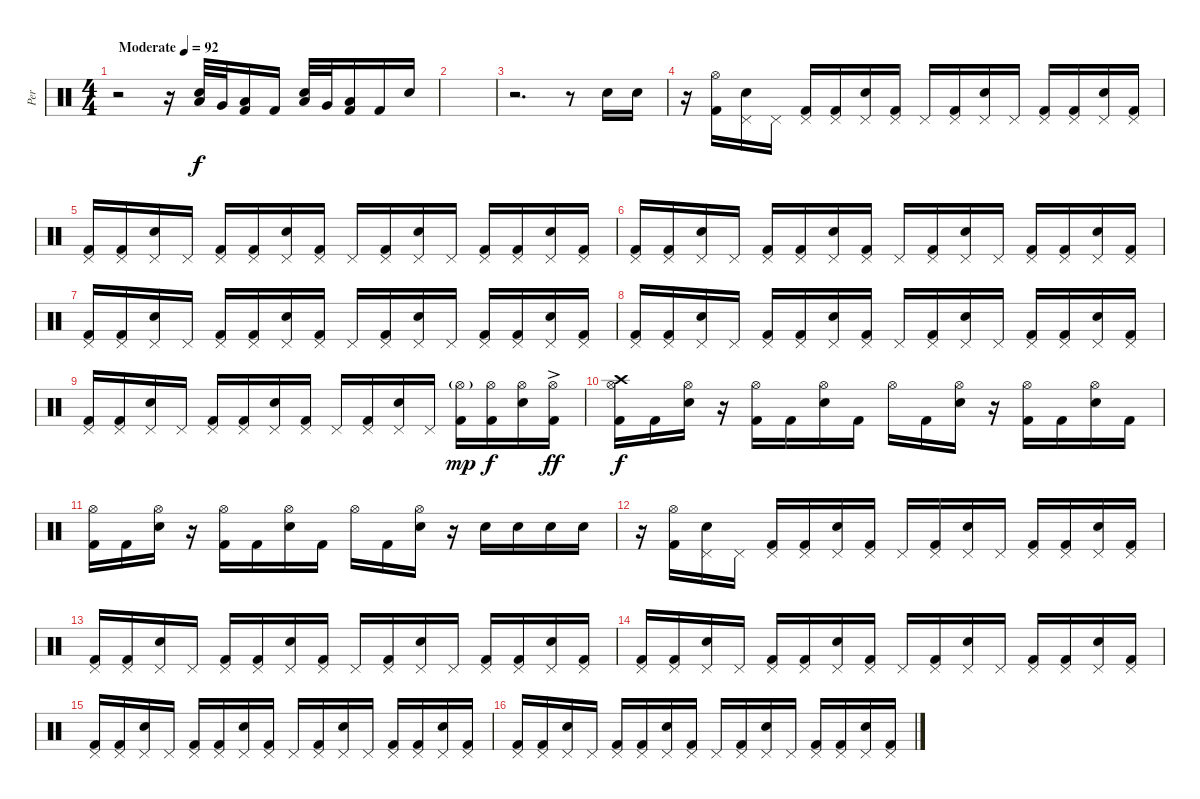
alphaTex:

\track ("Per" "Per") {instrument percussion}
\staff {score}
\articulation defaults
\ts (4 4)
\tempo (92 "Moderate")
\clef neutral
\ks c
r.2{dy f} r.16 ("Low Tom (hit)" "Snare (hit) 2").32 "Very Low Tom (hit)".32 ("Low Floor Tom (hit)" "Kick (hit) 2").16 "Kick (hit) 2".16 ("Low Tom (hit)" "Snare (hit) 2").32 "Very Low Tom (hit)".32 ("Low Floor Tom (hit)" "Kick (hit) 2").16 "Kick (hit) 2".16 "Snare (hit) 2".16 |
|
r.2{d} r.8 "Snare (hit) 2".16 "Snare (hit) 2".16 |
r.16 ("Hi-Hat (open)" "Kick (hit) 2").16 ("Pedal Hi-Hat (hit)" "Snare (hit) 2").16 "Pedal Hi-Hat (hit)".16 ("Pedal Hi-Hat (hit)" "Kick (hit) 2").16 ("Pedal Hi-Hat (hit)" "Kick (hit) 2").16 ("Pedal Hi-Hat (hit)" "Snare (hit) 2").16 ("Pedal Hi-Hat (hit)" "Kick (hit) 2").16 "Pedal Hi-Hat (hit)".16 ("Pedal Hi-Hat (hit)" "Kick (hit) 2").16 ("Pedal Hi-Hat (hit)" "Snare (hit) 2").16 "Pedal Hi-Hat (hit)".16 ("Pedal Hi-Hat (hit)" "Kick (hit) 2").16 ("Pedal Hi-Hat (hit)" "Kick (hit) 2").16 ("Pedal Hi-Hat (hit)" "Snare (hit) 2").16 ("Pedal Hi-Hat (hit)" "Kick (hit) 2").16 |
("Pedal Hi-Hat (hit)" "Kick (hit) 2").16 ("Pedal Hi-Hat (hit)" "Kick (hit) 2").16 ("Pedal Hi-Hat (hit)" "Snare (hit) 2").16 "Pedal Hi-Hat (hit)".16 ("Pedal Hi-Hat (hit)" "Kick (hit) 2").16 ("Pedal Hi-Hat (hit)" "Kick (hit) 2").16 ("Pedal Hi-Hat (hit)" "Snare (hit) 2").16 ("Pedal Hi-Hat (hit)" "Kick (hit) 2").16 "Pedal Hi-Hat (hit)".16 ("Pedal Hi-Hat (hit)" "Kick (hit) 2").16 ("Pedal Hi-Hat (hit)" "Snare (hit) 2").16 "Pedal Hi-Hat (hit)".16 ("Pedal Hi-Hat (hit)" "Kick (hit) 2").16 ("Pedal Hi-Hat (hit)" "Kick (hit) 2").16 ("Pedal Hi-Hat (hit)" "Snare (hit) 2").16 ("Pedal Hi-Hat (hit)" "Kick (hit) 2").16 |
("Pedal Hi-Hat (hit)" "Kick (hit) 2").16 ("Pedal Hi-Hat (hit)" "Kick (hit) 2").16 ("Pedal Hi-Hat (hit)" "Snare (hit) 2").16 "Pedal Hi-Hat (hit)".16 ("Pedal Hi-Hat (hit)" "Kick (hit) 2").16 ("Pedal Hi-Hat (hit)" "Kick (hit) 2").16 ("Pedal Hi-Hat (hit)" "Snare (hit) 2").16 ("Pedal Hi-Hat (hit)" "Kick (hit) 2").16 "Pedal Hi-Hat (hit)".16 ("Pedal Hi-Hat (hit)" "Kick (hit) 2").16 ("Pedal Hi-Hat (hit)" "Snare (hit) 2").16 "Pedal Hi-Hat (hit)".16 ("Pedal Hi-Hat (hit)" "Kick (hit) 2").16 ("Pedal Hi-Hat (hit)" "Kick (hit) 2").16 ("Pedal Hi-Hat (hit)" "Snare (hit) 2").16 ("Pedal Hi-Hat (hit)" "Kick (hit) 2").16 |
("Pedal Hi-Hat (hit)" "Kick (hit) 2").16 ("Pedal Hi-Hat (hit)" "Kick (hit) 2").16 ("Pedal Hi-Hat (hit)" "Snare (hit) 2").16 "Pedal Hi-Hat (hit)".16 ("Pedal Hi-Hat (hit)" "Kick (hit) 2").16 ("Pedal Hi-Hat (hit)" "Kick (hit) 2").16 ("Pedal Hi-Hat (hit)" "Snare (hit) 2").16 ("Pedal Hi-Hat (hit)" "Kick (hit) 2").16 "Pedal Hi-Hat (hit)".16 ("Pedal Hi-Hat (hit)" "Kick (hit) 2").16 ("Pedal Hi-Hat (hit)" "Snare (hit) 2").16 "Pedal Hi-Hat (hit)".16 ("Pedal Hi-Hat (hit)" "Kick (hit) 2").16 ("Pedal Hi-Hat (hit)" "Kick (hit) 2").16 ("Pedal Hi-Hat (hit)" "Snare (hit) 2").16 ("Pedal Hi-Hat (hit)" "Kick (hit) 2").16 |
("Pedal Hi-Hat (hit)" "Kick (hit) 2").16 ("Pedal Hi-Hat (hit)" "Kick (hit) 2").16 ("Pedal Hi-Hat (hit)" "Snare (hit) 2").16 "Pedal Hi-Hat (hit)".16 ("Pedal Hi-Hat (hit)" "Kick (hit) 2").16 ("Pedal Hi-Hat (hit)" "Kick (hit) 2").16 ("Pedal Hi-Hat (hit)" "Snare (hit) 2").16 ("Pedal Hi-Hat (hit)" "Kick (hit) 2").16 "Pedal Hi-Hat (hit)".16 ("Pedal Hi-Hat (hit)" "Kick (hit) 2").16 ("Pedal Hi-Hat (hit)" "Snare (hit) 2").16 "Pedal Hi-Hat (hit)".16 ("Pedal Hi-Hat (hit)" "Kick (hit) 2").16 ("Pedal Hi-Hat (hit)" "Kick (hit) 2").16 ("Pedal Hi-Hat (hit)" "Snare (hit) 2").16 ("Pedal Hi-Hat (hit)" "Kick (hit) 2").16 |
("Pedal Hi-Hat (hit)" "Kick (hit) 2").16 ("Pedal Hi-Hat (hit)" "Kick (hit) 2").16 ("Pedal Hi-Hat (hit)" "Snare (hit) 2").16 "Pedal Hi-Hat (hit)".16 ("Pedal Hi-Hat (hit)" "Kick (hit) 2").16 ("Pedal Hi-Hat (hit)" "Kick (hit) 2").16 ("Pedal Hi-Hat (hit)" "Snare (hit) 2").16 ("Pedal Hi-Hat (hit)" "Kick (hit) 2").16 "Pedal Hi-Hat (hit)".16 ("Pedal Hi-Hat (hit)" "Kick (hit) 2").16 ("Pedal Hi-Hat (hit)" "Snare (hit) 2").16 "Pedal Hi-Hat (hit)".16 ("Hi-Hat (open)"{g} "Kick (hit) 2").16{dy mp} ("Hi-Hat (open)" "Kick (hit) 2").16{dy f} ("Hi-Hat (open)" "Snare (hit) 2").16 ("Hi-Hat (open)"{ac} "Kick (hit) 2").16{dy ff} |
("Crash high (hit)" "Hi-Hat (open)" "Kick (hit) 2").16{dy f} "Kick (hit) 2".16 ("Hi-Hat (open)" "Snare (hit) 2").16 r.16 ("Hi-Hat (open)" "Kick (hit) 2").16 "Kick (hit) 2".16 ("Hi-Hat (open)" "Snare (hit) 2").16 "Kick (hit) 2".16 "Hi-Hat (open)".16 "Kick (hit) 2".16 ("Hi-Hat (open)" "Snare (hit) 2").16 r.16 ("Hi-Hat (open)" "Kick (hit) 2").16 "Kick (hit) 2".16 ("Hi-Hat (open)" "Snare (hit) 2").16 "Kick (hit) 2".16 |
("Hi-Hat (open)" "Kick (hit) 2").16 "Kick (hit) 2".16 ("Hi-Hat (open)" "Snare (hit) 2").16 r.16 ("Hi-Hat (open)" "Kick (hit) 2").16 "Kick (hit) 2".16 ("Hi-Hat (open)" "Snare (hit) 2").16 "Kick (hit) 2".16 "Hi-Hat (open)".16 "Kick (hit) 2".16 ("Hi-Hat (open)" "Snare (hit) 2").16 r.16 "Snare (hit) 2".16 "Snare (hit) 2".16 "Snare (hit) 2".16 "Snare (hit) 2".16 |
r.16 ("Hi-Hat (open)" "Kick (hit) 2").16 ("Pedal Hi-Hat (hit)" "Snare (hit) 2").16 "Pedal Hi-Hat (hit)".16 ("Pedal Hi-Hat (hit)" "Kick (hit) 2").16 ("Pedal Hi-Hat (hit)" "Kick (hit) 2").16 ("Pedal Hi-Hat (hit)" "Snare (hit) 2").16 ("Pedal Hi-Hat (hit)" "Kick (hit) 2").16 "Pedal Hi-Hat (hit)".16 ("Pedal Hi-Hat (hit)" "Kick (hit) 2").16 ("Pedal Hi-Hat (hit)" "Snare (hit) 2").16 "Pedal Hi-Hat (hit)".16 ("Pedal Hi-Hat (hit)" "Kick (hit) 2").16 ("Pedal Hi-Hat (hit)" "Kick (hit) 2").16 ("Pedal Hi-Hat (hit)" "Snare (hit) 2").16 ("Pedal Hi-Hat (hit)" "Kick (hit) 2").16 |
("Pedal Hi-Hat (hit)" "Kick (hit) 2").16 ("Pedal Hi-Hat (hit)" "Kick (hit) 2").16 ("Pedal Hi-Hat (hit)" "Snare (hit) 2").16 "Pedal Hi-Hat (hit)".16 ("Pedal Hi-Hat (hit)" "Kick (hit) 2").16 ("Pedal Hi-Hat (hit)" "Kick (hit) 2").16 ("Pedal Hi-Hat (hit)" "Snare (hit) 2").16 ("Pedal Hi-Hat (hit)" "Kick (hit) 2").16 "Pedal Hi-Hat (hit)".16 ("Pedal Hi-Hat (hit)" "Kick (hit) 2").16 ("Pedal Hi-Hat (hit)" "Snare (hit) 2").16 "Pedal Hi-Hat (hit)".16 ("Pedal Hi-Hat (hit)" "Kick (hit) 2").16 ("Pedal Hi-Hat (hit)" "Kick (hit) 2").16 ("Pedal Hi-Hat (hit)" "Snare (hit) 2").16 ("Pedal Hi-Hat (hit)" "Kick (hit) 2").16 |
("Pedal Hi-Hat (hit)" "Kick (hit) 2").16 ("Pedal Hi-Hat (hit)" "Kick (hit) 2").16 ("Pedal Hi-Hat (hit)" "Snare (hit) 2").16 "Pedal Hi-Hat (hit)".16 ("Pedal Hi-Hat (hit)" "Kick (hit) 2").16 ("Pedal Hi-Hat (hit)" "Kick (hit) 2").16 ("Pedal Hi-Hat (hit)" "Snare (hit) 2").16 ("Pedal Hi-Hat (hit)" "Kick (hit) 2").16 "Pedal Hi-Hat (hit)".16 ("Pedal Hi-Hat (hit)" "Kick (hit) 2").16 ("Pedal Hi-Hat (hit)" "Snare (hit) 2").16 "Pedal Hi-Hat (hit)".16 ("Pedal Hi-Hat (hit)" "Kick (hit) 2").16 ("Pedal Hi-Hat (hit)" "Kick (hit) 2").16 ("Pedal Hi-Hat (hit)" "Snare (hit) 2").16 ("Pedal Hi-Hat (hit)" "Kick (hit) 2").16 |
("Pedal Hi-Hat (hit)" "Kick (hit) 2").16 ("Pedal Hi-Hat (hit)" "Kick (hit) 2").16 ("Pedal Hi-Hat (hit)" "Snare (hit) 2").16 "Pedal Hi-Hat (hit)".16 ("Pedal Hi-Hat (hit)" "Kick (hit) 2").16 ("Pedal Hi-Hat (hit)" "Kick (hit) 2").16 ("Pedal Hi-Hat (hit)" "Snare (hit) 2").16 ("Pedal Hi-Hat (hit)" "Kick (hit) 2").16 "Pedal Hi-Hat (hit)".16 ("Pedal Hi-Hat (hit)" "Kick (hit) 2").16 ("Pedal Hi-Hat (hit)" "Snare (hit) 2").16 "Pedal Hi-Hat (hit)".16 ("Pedal Hi-Hat (hit)" "Kick (hit) 2").16 ("Pedal Hi-Hat (hit)" "Kick (hit) 2").16 ("Pedal Hi-Hat (hit)" "Snare (hit) 2").16 ("Pedal Hi-Hat (hit)" "Kick (hit) 2").16 |
("Pedal Hi-Hat (hit)" "Kick (hit) 2").16 ("Pedal Hi-Hat (hit)" "Kick (hit) 2").16 ("Pedal Hi-Hat (hit)" "Snare (hit) 2").16 "Pedal Hi-Hat (hit)".16 ("Pedal Hi-Hat (hit)" "Kick (hit) 2").16 ("Pedal Hi-Hat (hit)" "Kick (hit) 2").16 ("Pedal Hi-Hat (hit)" "Snare (hit) 2").16 ("Pedal Hi-Hat (hit)" "Kick (hit) 2").16 "Pedal Hi-Hat (hit)".16 ("Pedal Hi-Hat (hit)" "Kick (hit) 2").16 ("Pedal Hi-Hat (hit)" "Snare (hit) 2").16 "Pedal Hi-Hat (hit)".16 ("Pedal Hi-Hat (hit)" "Kick (hit) 2").16 ("Pedal Hi-Hat (hit)" "Kick (hit) 2").16 ("Pedal Hi-Hat (hit)" "Snare (hit) 2").16 ("Pedal Hi-Hat (hit)" "Kick (hit) 2").16
